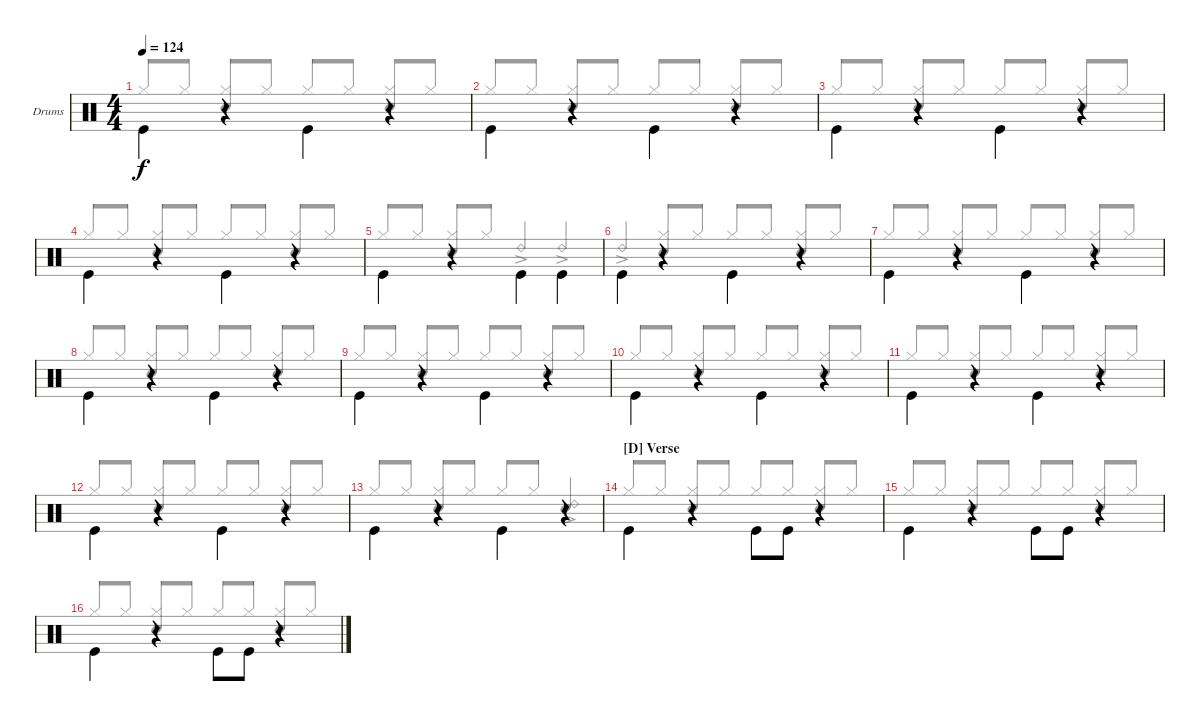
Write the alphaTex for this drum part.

\bracketExtendMode groupsimilarinstruments
\firstSystemTrackNameOrientation horizontal
\otherSystemsTrackNameOrientation horizontal
\track ("Drums" "Drums") {instrument percussion}
\staff {score}
\articulation defaults
\voice
\ts (4 4)
\tempo 124
\clef neutral
\scale
1.02648
\ks c "Kick (hit)".4{dy f beam invert}
r.4 "Kick (hit)".4{beam invert} r.4 |
\scale
0.973518 "Kick (hit)".4{beam invert} r.4 "Kick (hit)".4{beam invert} r.4 |
\scale
1.02648 "Kick (hit)".4{beam invert} r.4 "Kick (hit)".4{beam invert} r.4 |
\scale
0.973518 "Kick (hit)".4{beam invert} r.4 "Kick (hit)".4{beam invert} r.4 |
\scale
1.02648 "Kick (hit)".4{beam invert} r.4 "Kick (hit)".4{beam invert} "Kick (hit)".4{beam invert} |
\scale
0.973518 "Kick (hit)".4{beam invert} r.4 "Kick (hit)".4{beam invert} r.4 |
\scale
1.02648 "Kick (hit)".4{beam invert} r.4 "Kick (hit)".4{beam invert} r.4 |
\scale
0.973518 "Kick (hit)".4{beam invert} r.4 "Kick (hit)".4{beam invert} r.4 |
\scale
1.02648 "Kick (hit)".4{beam invert} r.4 "Kick (hit)".4{beam invert} r.4 |
\scale
0.973518 "Kick (hit)".4{beam invert} r.4 "Kick (hit)".4{beam invert} r.4 |
\scale
1.02648 "Kick (hit)".4{beam invert} r.4 "Kick (hit)".4{beam invert} r.4 |
\scale
0.973518 "Kick (hit)".4{beam invert} r.4 "Kick (hit)".4{beam invert} r.4 |
\scale
1.02648 "Kick (hit)".4{beam invert} r.4 "Kick (hit)".4{beam invert} r.4 |
\section ("D" "Verse")
\scale
0.973518 "Kick (hit)".4{beam invert} r.4 "Kick (hit)".8{beam invert} "Kick (hit)".8 r.4 |
\scale
1.02648 "Kick (hit)".4{beam invert} r.4 "Kick (hit)".8{beam invert} "Kick (hit)".8 r.4 |
\scale
0.973518 "Kick (hit)".4{beam invert} r.4 "Kick (hit)".8{beam invert} "Kick (hit)".8 r.4
\voice
\clef neutral
\ottava regular
\simile none
\scale
1.02648
\ks c "Hi-Hat (closed)".8{dy f beam invert} "Hi-Hat (closed)".8
("Hi-Hat (closed)" "Snare (hit) 2").8{beam invert} "Hi-Hat (closed)".8 "Hi-Hat (closed)".8{beam invert} "Hi-Hat (closed)".8 ("Hi-Hat (closed)" "Snare (hit) 2").8{beam invert} "Hi-Hat (closed)".8 |
\scale
0.973518 "Hi-Hat (closed)".8{beam invert} "Hi-Hat (closed)".8 ("Hi-Hat (closed)" "Snare (hit) 2").8{beam invert} "Hi-Hat (closed)".8 "Hi-Hat (closed)".8{beam invert} "Hi-Hat (closed)".8 ("Hi-Hat (closed)" "Snare (hit) 2").8{beam invert} "Hi-Hat (closed)".8 |
\scale
1.02648 "Hi-Hat (closed)".8{beam invert} "Hi-Hat (closed)".8 ("Hi-Hat (closed)" "Snare (hit) 2").8{beam invert} "Hi-Hat (closed)".8 "Hi-Hat (closed)".8{beam invert} "Hi-Hat (closed)".8 ("Hi-Hat (closed)" "Snare (hit) 2").8{beam invert} "Hi-Hat (closed)".8 |
\scale
0.973518 "Hi-Hat (closed)".8{beam invert} "Hi-Hat (closed)".8 ("Hi-Hat (closed)" "Snare (hit) 2").8{beam invert} "Hi-Hat (closed)".8 "Hi-Hat (closed)".8{beam invert} "Hi-Hat (closed)".8 ("Hi-Hat (closed)" "Snare (hit) 2").8{beam invert} "Hi-Hat (closed)".8 |
\scale
1.02648 "Hi-Hat (closed)".8{beam invert} "Hi-Hat (closed)".8 ("Hi-Hat (closed)" "Snare (hit) 2").8{beam invert} "Hi-Hat (closed)".8 "Ride (bell) 2"{ac}.4{beam invert} "Ride (bell) 2"{ac}.4{beam invert} |
\scale
0.973518 "Ride (bell) 2"{ac}.4{beam invert} ("Hi-Hat (closed)" "Snare (hit) 2").8{beam invert} "Hi-Hat (closed)".8 "Hi-Hat (closed)".8{beam invert} "Hi-Hat (closed)".8 ("Hi-Hat (closed)" "Snare (hit) 2").8{beam invert} "Hi-Hat (closed)".8 |
\scale
1.02648 "Hi-Hat (closed)".8{beam invert} "Hi-Hat (closed)".8 ("Hi-Hat (closed)" "Snare (hit) 2").8{beam invert} "Hi-Hat (closed)".8 "Hi-Hat (closed)".8{beam invert} "Hi-Hat (closed)".8 ("Hi-Hat (closed)" "Snare (hit) 2").8{beam invert} "Hi-Hat (closed)".8 |
\scale
0.973518 "Hi-Hat (closed)".8{beam invert} "Hi-Hat (closed)".8 ("Hi-Hat (closed)" "Snare (hit) 2").8{beam invert} "Hi-Hat (closed)".8 "Hi-Hat (closed)".8{beam invert} "Hi-Hat (closed)".8 ("Hi-Hat (closed)" "Snare (hit) 2").8{beam invert} "Hi-Hat (closed)".8 |
\scale
1.02648 "Hi-Hat (closed)".8{beam invert} "Hi-Hat (closed)".8 ("Hi-Hat (closed)" "Snare (hit) 2").8{beam invert} "Hi-Hat (closed)".8 "Hi-Hat (closed)".8{beam invert} "Hi-Hat (closed)".8 ("Hi-Hat (closed)" "Snare (hit) 2").8{beam invert} "Hi-Hat (closed)".8 |
\scale
0.973518 "Hi-Hat (closed)".8{beam invert} "Hi-Hat (closed)".8 ("Hi-Hat (closed)" "Snare (hit) 2").8{beam invert} "Hi-Hat (closed)".8 "Hi-Hat (closed)".8{beam invert} "Hi-Hat (closed)".8 ("Hi-Hat (closed)" "Snare (hit) 2").8{beam invert} "Hi-Hat (closed)".8 |
\scale
1.02648 "Hi-Hat (closed)".8{beam invert} "Hi-Hat (closed)".8 ("Hi-Hat (closed)" "Snare (hit) 2").8{beam invert} "Hi-Hat (closed)".8 "Hi-Hat (closed)".8{beam invert} "Hi-Hat (closed)".8 ("Hi-Hat (closed)" "Snare (hit) 2").8{beam invert} "Hi-Hat (closed)".8 |
\scale
0.973518 "Hi-Hat (closed)".8{beam invert} "Hi-Hat (closed)".8 ("Hi-Hat (closed)" "Snare (hit) 2").8{beam invert} "Hi-Hat (closed)".8 "Hi-Hat (closed)".8{beam invert} "Hi-Hat (closed)".8 ("Hi-Hat (closed)" "Snare (hit) 2").8{beam invert} "Hi-Hat (closed)".8 |
\scale
1.02648 "Hi-Hat (closed)".8{beam invert} "Hi-Hat (closed)".8 ("Hi-Hat (closed)" "Snare (hit) 2").8{beam invert} "Hi-Hat (closed)".8 "Hi-Hat (closed)".8{beam invert} "Hi-Hat (closed)".8 ("Snare (hit) 2" "Ride (bell) 2"{ac}).4{beam invert} |
\scale
0.973518 "Hi-Hat (closed)".8{beam invert} "Hi-Hat (closed)".8 ("Hi-Hat (closed)" "Snare (hit) 2").8{beam invert} "Hi-Hat (closed)".8 "Hi-Hat (closed)".8{beam invert} "Hi-Hat (closed)".8 ("Hi-Hat (closed)" "Snare (hit) 2").8{beam invert} "Hi-Hat (closed)".8 |
\scale
1.02648 "Hi-Hat (closed)".8{beam invert} "Hi-Hat (closed)".8 ("Hi-Hat (closed)" "Snare (hit) 2").8{beam invert} "Hi-Hat (closed)".8 "Hi-Hat (closed)".8{beam invert} "Hi-Hat (closed)".8 ("Hi-Hat (closed)" "Snare (hit) 2").8{beam invert} "Hi-Hat (closed)".8 |
\scale
0.973518 "Hi-Hat (closed)".8{beam invert} "Hi-Hat (closed)".8 ("Hi-Hat (closed)" "Snare (hit) 2").8{beam invert} "Hi-Hat (closed)".8 "Hi-Hat (closed)".8{beam invert} "Hi-Hat (closed)".8 ("Hi-Hat (closed)" "Snare (hit) 2").8{beam invert} "Hi-Hat (closed)".8
